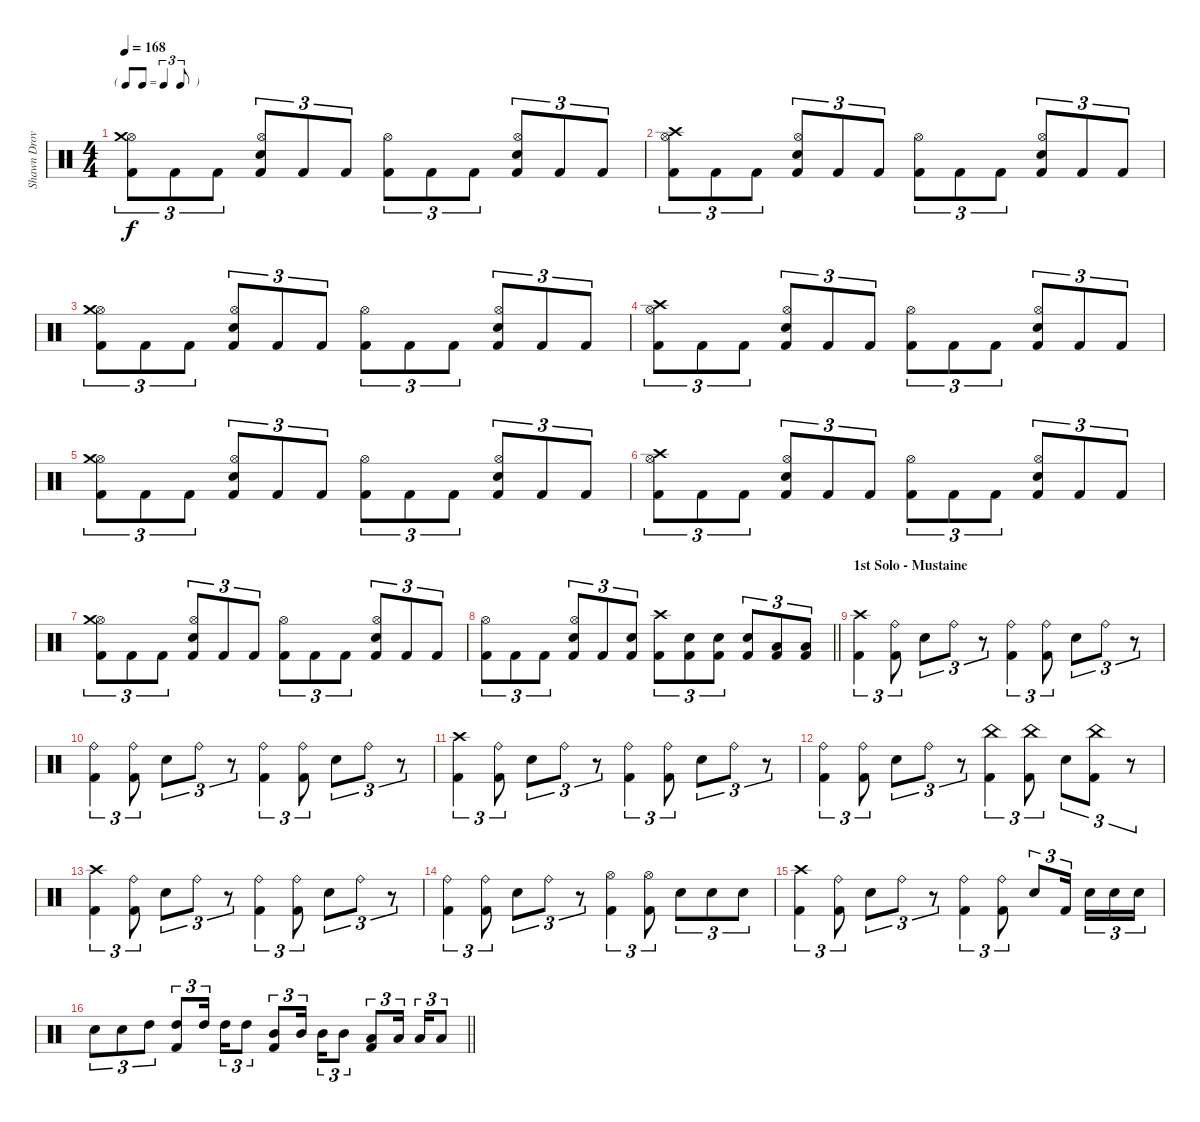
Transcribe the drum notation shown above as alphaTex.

\track ("Shawn Drover" "Shawn Drov") {instrument percussion}
\staff {score}
\articulation defaults
\ts (4 4)
\tf triplet8th
\tempo 168
\clef neutral
\ks c
("Kick (hit) 2" "Hi-Hat (open)" "Crash medium (hit)").8{tu (3 2) dy f} "Kick (hit) 2".8{tu (3 2)} "Kick (hit) 2".8{tu (3 2)} ("Kick (hit) 2" "Snare (hit) 2" "Hi-Hat (open)").8{tu (3 2)} "Kick (hit) 2".8{tu (3 2)} "Kick (hit) 2".8{tu (3 2)} ("Kick (hit) 2" "Hi-Hat (open)").8{tu (3 2)} "Kick (hit) 2".8{tu (3 2)} "Kick (hit) 2".8{tu (3 2)} ("Kick (hit) 2" "Snare (hit) 2" "Hi-Hat (open)").8{tu (3 2)} "Kick (hit) 2".8{tu (3 2)} "Kick (hit) 2".8{tu (3 2)} |
("Kick (hit) 2" "Hi-Hat (open)" "Crash high (hit)").8{tu (3 2)} "Kick (hit) 2".8{tu (3 2)} "Kick (hit) 2".8{tu (3 2)} ("Kick (hit) 2" "Snare (hit) 2" "Hi-Hat (open)").8{tu (3 2)} "Kick (hit) 2".8{tu (3 2)} "Kick (hit) 2".8{tu (3 2)} ("Kick (hit) 2" "Hi-Hat (open)").8{tu (3 2)} "Kick (hit) 2".8{tu (3 2)} "Kick (hit) 2".8{tu (3 2)} ("Kick (hit) 2" "Snare (hit) 2" "Hi-Hat (open)").8{tu (3 2)} "Kick (hit) 2".8{tu (3 2)} "Kick (hit) 2".8{tu (3 2)} |
("Kick (hit) 2" "Hi-Hat (open)" "Crash medium (hit)").8{tu (3 2)} "Kick (hit) 2".8{tu (3 2)} "Kick (hit) 2".8{tu (3 2)} ("Kick (hit) 2" "Snare (hit) 2" "Hi-Hat (open)").8{tu (3 2)} "Kick (hit) 2".8{tu (3 2)} "Kick (hit) 2".8{tu (3 2)} ("Kick (hit) 2" "Hi-Hat (open)").8{tu (3 2)} "Kick (hit) 2".8{tu (3 2)} "Kick (hit) 2".8{tu (3 2)} ("Kick (hit) 2" "Snare (hit) 2" "Hi-Hat (open)").8{tu (3 2)} "Kick (hit) 2".8{tu (3 2)} "Kick (hit) 2".8{tu (3 2)} |
("Kick (hit) 2" "Hi-Hat (open)" "Crash high (hit)").8{tu (3 2)} "Kick (hit) 2".8{tu (3 2)} "Kick (hit) 2".8{tu (3 2)} ("Kick (hit) 2" "Snare (hit) 2" "Hi-Hat (open)").8{tu (3 2)} "Kick (hit) 2".8{tu (3 2)} "Kick (hit) 2".8{tu (3 2)} ("Kick (hit) 2" "Hi-Hat (open)").8{tu (3 2)} "Kick (hit) 2".8{tu (3 2)} "Kick (hit) 2".8{tu (3 2)} ("Kick (hit) 2" "Snare (hit) 2" "Hi-Hat (open)").8{tu (3 2)} "Kick (hit) 2".8{tu (3 2)} "Kick (hit) 2".8{tu (3 2)} |
("Kick (hit) 2" "Hi-Hat (open)" "Crash medium (hit)").8{tu (3 2)} "Kick (hit) 2".8{tu (3 2)} "Kick (hit) 2".8{tu (3 2)} ("Kick (hit) 2" "Snare (hit) 2" "Hi-Hat (open)").8{tu (3 2)} "Kick (hit) 2".8{tu (3 2)} "Kick (hit) 2".8{tu (3 2)} ("Kick (hit) 2" "Hi-Hat (open)").8{tu (3 2)} "Kick (hit) 2".8{tu (3 2)} "Kick (hit) 2".8{tu (3 2)} ("Kick (hit) 2" "Snare (hit) 2" "Hi-Hat (open)").8{tu (3 2)} "Kick (hit) 2".8{tu (3 2)} "Kick (hit) 2".8{tu (3 2)} |
("Kick (hit) 2" "Hi-Hat (open)" "Crash high (hit)").8{tu (3 2)} "Kick (hit) 2".8{tu (3 2)} "Kick (hit) 2".8{tu (3 2)} ("Kick (hit) 2" "Snare (hit) 2" "Hi-Hat (open)").8{tu (3 2)} "Kick (hit) 2".8{tu (3 2)} "Kick (hit) 2".8{tu (3 2)} ("Kick (hit) 2" "Hi-Hat (open)").8{tu (3 2)} "Kick (hit) 2".8{tu (3 2)} "Kick (hit) 2".8{tu (3 2)} ("Kick (hit) 2" "Snare (hit) 2" "Hi-Hat (open)").8{tu (3 2)} "Kick (hit) 2".8{tu (3 2)} "Kick (hit) 2".8{tu (3 2)} |
("Kick (hit) 2" "Hi-Hat (open)" "Crash medium (hit)").8{tu (3 2)} "Kick (hit) 2".8{tu (3 2)} "Kick (hit) 2".8{tu (3 2)} ("Kick (hit) 2" "Snare (hit) 2" "Hi-Hat (open)").8{tu (3 2)} "Kick (hit) 2".8{tu (3 2)} "Kick (hit) 2".8{tu (3 2)} ("Kick (hit) 2" "Hi-Hat (open)").8{tu (3 2)} "Kick (hit) 2".8{tu (3 2)} "Kick (hit) 2".8{tu (3 2)} ("Kick (hit) 2" "Snare (hit) 2" "Hi-Hat (open)").8{tu (3 2)} "Kick (hit) 2".8{tu (3 2)} "Kick (hit) 2".8{tu (3 2)} |
\barLineRight lightlight
("Kick (hit) 2" "Hi-Hat (open)").8{tu (3 2)} "Kick (hit) 2".8{tu (3 2)} "Kick (hit) 2".8{tu (3 2)} ("Kick (hit) 2" "Snare (hit) 2" "Hi-Hat (open)").8{tu (3 2)} "Kick (hit) 2".8{tu (3 2)} ("Kick (hit) 2" "Snare (hit) 2").8{tu (3 2)} ("Kick (hit) 2" "Crash high (hit)").8{tu (3 2)} ("Kick (hit) 2" "Snare (hit) 2").8{tu (3 2)} ("Kick (hit) 2" "Snare (hit) 2").8{tu (3 2)} ("Kick (hit) 2" "Snare (hit) 2").8{tu (3 2)} ("Kick (hit) 2" "Low Tom (hit)").8{tu (3 2)} ("Kick (hit) 2" "Low Tom (hit)").8{tu (3 2)} |
\section ("" "1st Solo - Mustaine")
("Kick (hit) 2" "Crash high (hit)").4{tu (3 2)} ("Kick (hit) 2" "Ride (bell)").8{tu (3 2)} "Snare (hit) 2".8{tu (3 2)} "Ride (bell)".8{tu (3 2)} r.8{tu (3 2)} ("Kick (hit) 2" "Ride (bell)").4{tu (3 2)} ("Kick (hit) 2" "Ride (bell)").8{tu (3 2)} "Snare (hit) 2".8{tu (3 2)} "Ride (bell)".8{tu (3 2)} r.8{tu (3 2)} |
("Kick (hit) 2" "Ride (bell)").4{tu (3 2)} ("Kick (hit) 2" "Ride (bell)").8{tu (3 2)} "Snare (hit) 2".8{tu (3 2)} "Ride (bell)".8{tu (3 2)} r.8{tu (3 2)} ("Kick (hit) 2" "Ride (bell)").4{tu (3 2)} ("Kick (hit) 2" "Ride (bell)").8{tu (3 2)} "Snare (hit) 2".8{tu (3 2)} "Ride (bell)".8{tu (3 2)} r.8{tu (3 2)} |
("Kick (hit) 2" "Crash high (hit)").4{tu (3 2)} ("Kick (hit) 2" "Ride (bell)").8{tu (3 2)} "Snare (hit) 2".8{tu (3 2)} "Ride (bell)".8{tu (3 2)} r.8{tu (3 2)} ("Kick (hit) 2" "Ride (bell)").4{tu (3 2)} ("Kick (hit) 2" "Ride (bell)").8{tu (3 2)} "Snare (hit) 2".8{tu (3 2)} "Ride (bell)".8{tu (3 2)} r.8{tu (3 2)} |
("Kick (hit) 2" "Ride (bell)").4{tu (3 2)} ("Kick (hit) 2" "Ride (bell)").8{tu (3 2)} "Snare (hit) 2".8{tu (3 2)} "Ride (bell)".8{tu (3 2)} r.8{tu (3 2)} ("Kick (hit) 2" "China (hit)").4{tu (3 2)} ("Kick (hit) 2" "China (hit)").8{tu (3 2)} "Snare (hit) 2".8{tu (3 2)} ("Kick (hit) 2" "China (hit)").8{tu (3 2)} r.8{tu (3 2)} |
("Kick (hit) 2" "Crash high (hit)").4{tu (3 2)} ("Kick (hit) 2" "Ride (bell)").8{tu (3 2)} "Snare (hit) 2".8{tu (3 2)} "Ride (bell)".8{tu (3 2)} r.8{tu (3 2)} ("Kick (hit) 2" "Ride (bell)").4{tu (3 2)} ("Kick (hit) 2" "Ride (bell)").8{tu (3 2)} "Snare (hit) 2".8{tu (3 2)} "Ride (bell)".8{tu (3 2)} r.8{tu (3 2)} |
("Kick (hit) 2" "Ride (bell)").4{tu (3 2)} ("Kick (hit) 2" "Ride (bell)").8{tu (3 2)} "Snare (hit) 2".8{tu (3 2)} "Ride (bell)".8{tu (3 2)} r.8{tu (3 2)} ("Kick (hit) 2" "Hi-Hat (open)").4{tu (3 2)} ("Kick (hit) 2" "Hi-Hat (open)").8{tu (3 2)} "Snare (hit) 2".8{tu (3 2)} "Snare (hit) 2".8{tu (3 2)} "Snare (hit) 2".8{tu (3 2)} |
("Kick (hit) 2" "Crash high (hit)").4{tu (3 2)} ("Kick (hit) 2" "Ride (bell)").8{tu (3 2)} "Snare (hit) 2".8{tu (3 2)} "Ride (bell)".8{tu (3 2)} r.8{tu (3 2)} ("Kick (hit) 2" "Ride (bell)").4{tu (3 2)} ("Kick (hit) 2" "Ride (bell)").8{tu (3 2)} "Snare (hit) 2".8{tu (3 2)} "Kick (hit) 2".16{tu (3 2) beam splitsecondary} "Snare (hit) 2".16{tu (3 2)} "Snare (hit) 2".16{tu (3 2)} "Snare (hit) 2".16{tu (3 2)} |
\barLineRight lightlight "Snare (hit) 2".8{tu (3 2)} "Snare (hit) 2".8{tu (3 2)} "High Tom (hit)".8{tu (3 2)}
("Kick (hit) 2" "High Tom (hit)").8{tu (3 2)} "High Tom (hit)".16{tu (3 2) beam splitsecondary} "High Tom (hit)".16{tu (3 2)} "High Tom (hit)".8{tu (3 2)} ("Kick (hit) 2" "Mid Tom (hit)").8{tu (3 2)} "Mid Tom (hit)".16{tu (3 2) beam splitsecondary} "Mid Tom (hit)".16{tu (3 2)} "Mid Tom (hit)".8{tu (3 2)} ("Kick (hit) 2" "Low Tom (hit)").8{tu (3 2)} "Low Tom (hit)".16{tu (3 2) beam splitsecondary} "Low Tom (hit)".16{tu (3 2)} "Low Tom (hit)".8{tu (3 2)}
